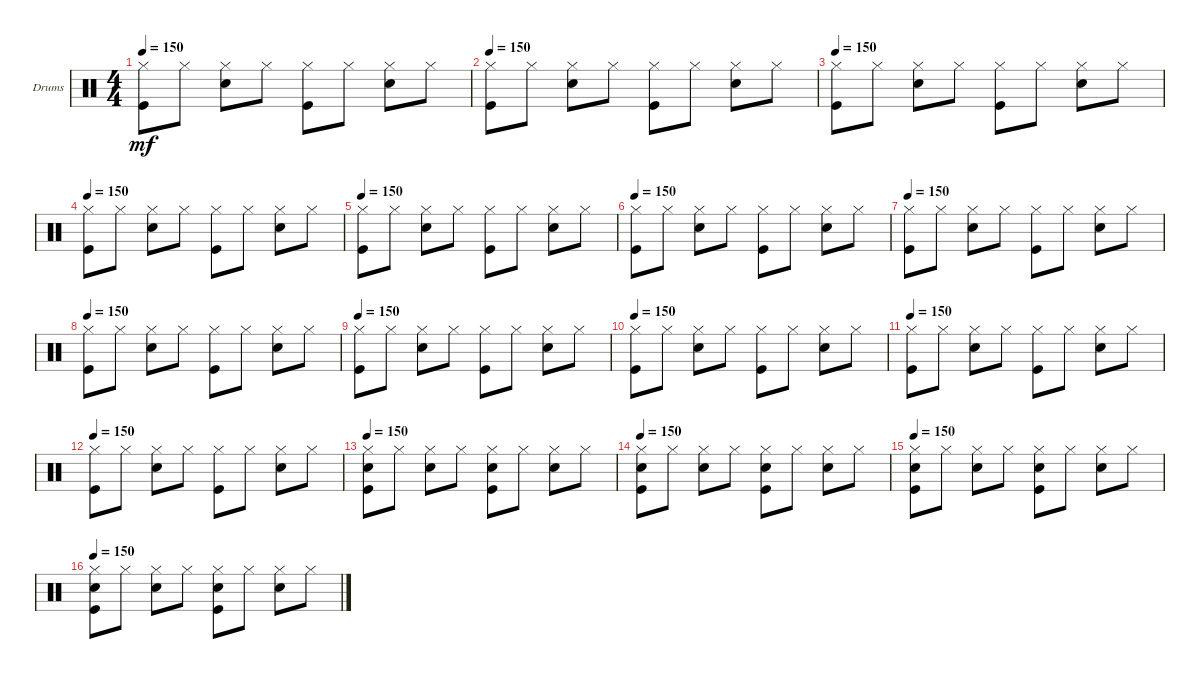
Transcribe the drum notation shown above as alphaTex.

\bracketExtendMode groupsimilarinstruments
\firstSystemTrackNameOrientation horizontal
\otherSystemsTrackNameOrientation horizontal
\track ("Drums" "Drums") {instrument percussion}
\staff {score}
\articulation defaults
\ts (4 4)
\tempo 150
\clef neutral
\ks c
("Kick (hit)" "Hi-Hat (closed)").8{dy mf} "Hi-Hat (closed)".8 ("Snare (hit) 2" "Hi-Hat (closed)").8 "Hi-Hat (closed)".8 ("Kick (hit)" "Hi-Hat (closed)").8 "Hi-Hat (closed)".8 ("Snare (hit) 2" "Hi-Hat (closed)").8 "Hi-Hat (closed)".8 |
\tempo 150
("Kick (hit)" "Hi-Hat (closed)").8 "Hi-Hat (closed)".8 ("Snare (hit) 2" "Hi-Hat (closed)").8 "Hi-Hat (closed)".8 ("Kick (hit)" "Hi-Hat (closed)").8 "Hi-Hat (closed)".8 ("Snare (hit) 2" "Hi-Hat (closed)").8 "Hi-Hat (closed)".8 |
\tempo 150
("Kick (hit)" "Hi-Hat (closed)").8 "Hi-Hat (closed)".8 ("Snare (hit) 2" "Hi-Hat (closed)").8 "Hi-Hat (closed)".8 ("Kick (hit)" "Hi-Hat (closed)").8 "Hi-Hat (closed)".8 ("Snare (hit) 2" "Hi-Hat (closed)").8 "Hi-Hat (closed)".8 |
\tempo 150
("Kick (hit)" "Hi-Hat (closed)").8 "Hi-Hat (closed)".8 ("Snare (hit) 2" "Hi-Hat (closed)").8 "Hi-Hat (closed)".8 ("Kick (hit)" "Hi-Hat (closed)").8 "Hi-Hat (closed)".8 ("Snare (hit) 2" "Hi-Hat (closed)").8 "Hi-Hat (closed)".8 |
\tempo 150
("Kick (hit)" "Hi-Hat (closed)").8 "Hi-Hat (closed)".8 ("Snare (hit) 2" "Hi-Hat (closed)").8 "Hi-Hat (closed)".8 ("Kick (hit)" "Hi-Hat (closed)").8 "Hi-Hat (closed)".8 ("Snare (hit) 2" "Hi-Hat (closed)").8 "Hi-Hat (closed)".8 |
\tempo 150
("Kick (hit)" "Hi-Hat (closed)").8 "Hi-Hat (closed)".8 ("Snare (hit) 2" "Hi-Hat (closed)").8 "Hi-Hat (closed)".8 ("Kick (hit)" "Hi-Hat (closed)").8 "Hi-Hat (closed)".8 ("Snare (hit) 2" "Hi-Hat (closed)").8 "Hi-Hat (closed)".8 |
\tempo 150
("Kick (hit)" "Hi-Hat (closed)").8 "Hi-Hat (closed)".8 ("Snare (hit) 2" "Hi-Hat (closed)").8 "Hi-Hat (closed)".8 ("Kick (hit)" "Hi-Hat (closed)").8 "Hi-Hat (closed)".8 ("Snare (hit) 2" "Hi-Hat (closed)").8 "Hi-Hat (closed)".8 |
\tempo 150
("Kick (hit)" "Hi-Hat (closed)").8 "Hi-Hat (closed)".8 ("Snare (hit) 2" "Hi-Hat (closed)").8 "Hi-Hat (closed)".8 ("Kick (hit)" "Hi-Hat (closed)").8 "Hi-Hat (closed)".8 ("Snare (hit) 2" "Hi-Hat (closed)").8 "Hi-Hat (closed)".8 |
\tempo 150
("Kick (hit)" "Hi-Hat (closed)").8 "Hi-Hat (closed)".8 ("Snare (hit) 2" "Hi-Hat (closed)").8 "Hi-Hat (closed)".8 ("Kick (hit)" "Hi-Hat (closed)").8 "Hi-Hat (closed)".8 ("Snare (hit) 2" "Hi-Hat (closed)").8 "Hi-Hat (closed)".8 |
\tempo 150
("Kick (hit)" "Hi-Hat (closed)").8 "Hi-Hat (closed)".8 ("Snare (hit) 2" "Hi-Hat (closed)").8 "Hi-Hat (closed)".8 ("Kick (hit)" "Hi-Hat (closed)").8 "Hi-Hat (closed)".8 ("Snare (hit) 2" "Hi-Hat (closed)").8 "Hi-Hat (closed)".8 |
\tempo 150
("Kick (hit)" "Hi-Hat (closed)").8 "Hi-Hat (closed)".8 ("Snare (hit) 2" "Hi-Hat (closed)").8 "Hi-Hat (closed)".8 ("Kick (hit)" "Hi-Hat (closed)").8 "Hi-Hat (closed)".8 ("Snare (hit) 2" "Hi-Hat (closed)").8 "Hi-Hat (closed)".8 |
\tempo 150
("Kick (hit)" "Hi-Hat (closed)").8 "Hi-Hat (closed)".8 ("Snare (hit) 2" "Hi-Hat (closed)").8 "Hi-Hat (closed)".8 ("Kick (hit)" "Hi-Hat (closed)").8 "Hi-Hat (closed)".8 ("Snare (hit) 2" "Hi-Hat (closed)").8 "Hi-Hat (closed)".8 |
\tempo 150
("Kick (hit)" "Snare (hit) 2" "Hi-Hat (closed)").8 "Hi-Hat (closed)".8 ("Snare (hit) 2" "Hi-Hat (closed)").8 "Hi-Hat (closed)".8 ("Kick (hit)" "Snare (hit) 2" "Hi-Hat (closed)").8 "Hi-Hat (closed)".8 ("Snare (hit) 2" "Hi-Hat (closed)").8 "Hi-Hat (closed)".8 |
\tempo 150
("Kick (hit)" "Snare (hit) 2" "Hi-Hat (closed)").8 "Hi-Hat (closed)".8 ("Snare (hit) 2" "Hi-Hat (closed)").8 "Hi-Hat (closed)".8 ("Kick (hit)" "Snare (hit) 2" "Hi-Hat (closed)").8 "Hi-Hat (closed)".8 ("Snare (hit) 2" "Hi-Hat (closed)").8 "Hi-Hat (closed)".8 |
\tempo 150
("Snare (hit) 2" "Kick (hit)" "Hi-Hat (closed)").8 "Hi-Hat (closed)".8 ("Snare (hit) 2" "Hi-Hat (closed)").8 "Hi-Hat (closed)".8 ("Snare (hit) 2" "Kick (hit)" "Hi-Hat (closed)").8 "Hi-Hat (closed)".8 ("Snare (hit) 2" "Hi-Hat (closed)").8 "Hi-Hat (closed)".8 |
\tempo 150
("Snare (hit) 2" "Kick (hit)" "Hi-Hat (closed)").8 "Hi-Hat (closed)".8 ("Snare (hit) 2" "Hi-Hat (closed)").8 "Hi-Hat (closed)".8 ("Snare (hit) 2" "Kick (hit)" "Hi-Hat (closed)").8 "Hi-Hat (closed)".8 ("Snare (hit) 2" "Hi-Hat (closed)").8 "Hi-Hat (closed)".8
